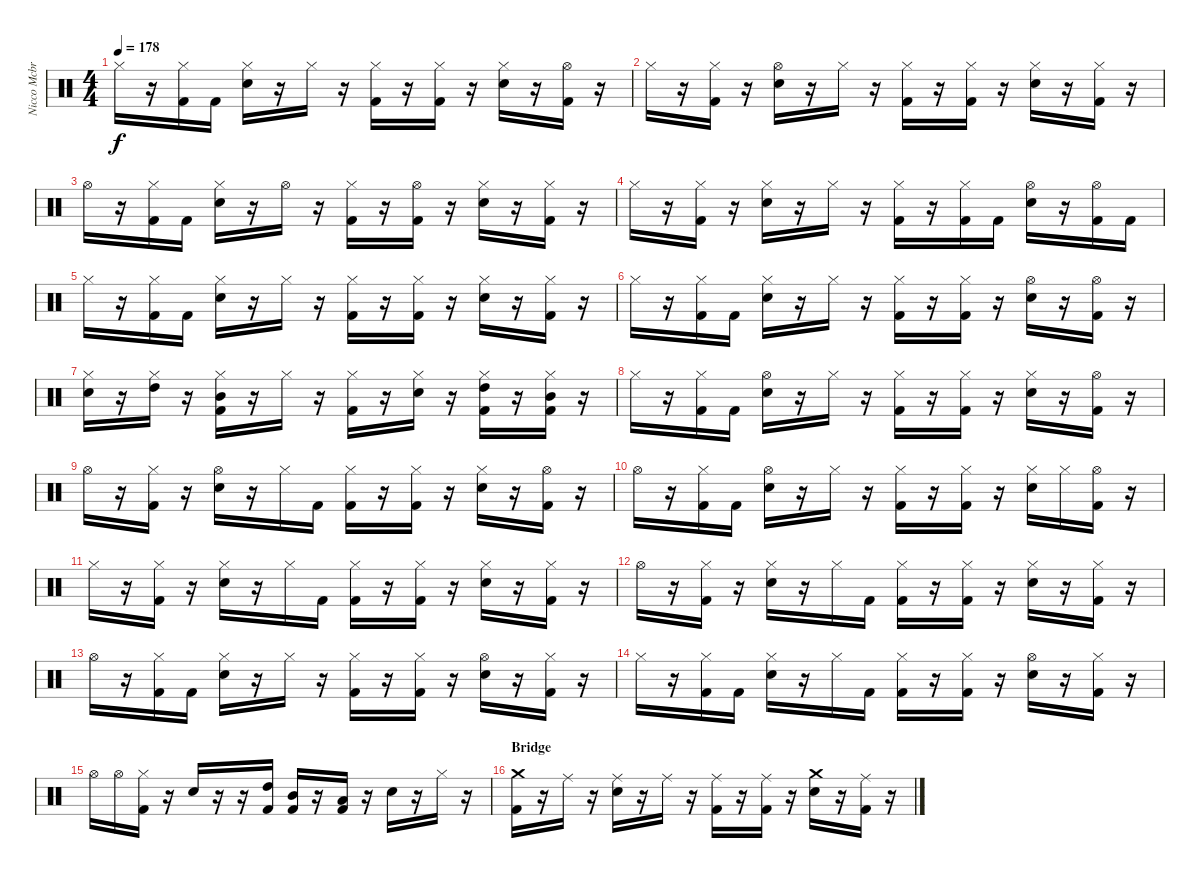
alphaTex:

\track ("Nicco Mcbrian - Drums" "Nicco Mcbr") {instrument percussion}
\staff {score}
\articulation defaults
\ts (4 4)
\tempo 178
\clef neutral
\ks c "Hi-Hat (closed)".16{dy f}
r.16 ("Hi-Hat (closed)" "Kick (hit) 2").16 "Kick (hit) 2".16 ("Hi-Hat (closed)" "Snare (hit) 2").16 r.16 "Hi-Hat (closed)".16 r.16 ("Hi-Hat (closed)" "Kick (hit) 2").16 r.16 ("Hi-Hat (closed)" "Kick (hit) 2").16 r.16 ("Hi-Hat (closed)" "Snare (hit) 2").16 r.16 ("Hi-Hat (open)" "Kick (hit) 2").16 r.16 |
"Hi-Hat (closed)".16 r.16 ("Hi-Hat (closed)" "Kick (hit) 2").16 r.16 ("Hi-Hat (open)" "Snare (hit) 2").16 r.16 "Hi-Hat (closed)".16 r.16 ("Hi-Hat (closed)" "Kick (hit) 2").16 r.16 ("Hi-Hat (closed)" "Kick (hit) 2").16 r.16 ("Hi-Hat (closed)" "Snare (hit) 2").16 r.16 ("Hi-Hat (closed)" "Kick (hit) 2").16 r.16 |
"Hi-Hat (open)".16 r.16 ("Hi-Hat (closed)" "Kick (hit) 2").16 "Kick (hit) 2".16 ("Hi-Hat (closed)" "Snare (hit) 2").16 r.16 "Hi-Hat (open)".16 r.16 ("Hi-Hat (closed)" "Kick (hit) 2").16 r.16 ("Hi-Hat (open)" "Kick (hit) 2").16 r.16 ("Hi-Hat (closed)" "Snare (hit) 2").16 r.16 ("Hi-Hat (closed)" "Kick (hit) 2").16 r.16 |
"Hi-Hat (closed)".16 r.16 ("Hi-Hat (closed)" "Kick (hit) 2").16 r.16 ("Hi-Hat (closed)" "Snare (hit) 2").16 r.16 "Hi-Hat (closed)".16 r.16 ("Hi-Hat (closed)" "Kick (hit) 2").16 r.16 ("Hi-Hat (closed)" "Kick (hit) 2").16 "Kick (hit) 2".16 ("Hi-Hat (open)" "Snare (hit) 2").16 r.16 ("Hi-Hat (open)" "Kick (hit) 2").16 "Kick (hit) 2".16 |
"Hi-Hat (closed)".16 r.16 ("Hi-Hat (closed)" "Kick (hit) 2").16 "Kick (hit) 2".16 ("Hi-Hat (closed)" "Snare (hit) 2").16 r.16 "Hi-Hat (closed)".16 r.16 ("Hi-Hat (closed)" "Kick (hit) 2").16 r.16 ("Hi-Hat (closed)" "Kick (hit) 2").16 r.16 ("Hi-Hat (closed)" "Snare (hit) 2").16 r.16 ("Hi-Hat (closed)" "Kick (hit) 2").16 r.16 |
"Hi-Hat (closed)".16 r.16 ("Hi-Hat (closed)" "Kick (hit) 2").16 "Kick (hit) 2".16 ("Hi-Hat (closed)" "Snare (hit) 2").16 r.16 "Hi-Hat (closed)".16 r.16 ("Hi-Hat (closed)" "Kick (hit) 2").16 r.16 ("Hi-Hat (closed)" "Kick (hit) 2").16 r.16 ("Hi-Hat (open)" "Snare (hit) 2").16 r.16 ("Hi-Hat (open)" "Kick (hit) 2").16 r.16 |
("Hi-Hat (closed)" "Snare (hit) 2").16 r.16 ("Hi-Hat (closed)" "High Tom (hit)").16 r.16 ("Hi-Hat (closed)" "Mid Tom (hit)" "Kick (hit) 2").16 r.16 "Hi-Hat (closed)".16 r.16 ("Hi-Hat (closed)" "Kick (hit) 2").16 r.16 ("Hi-Hat (closed)" "Snare (hit) 2").16 r.16 ("Hi-Hat (closed)" "High Tom (hit)" "Kick (hit) 2").16 r.16 ("Hi-Hat (closed)" "Mid Tom (hit)" "Kick (hit) 2").16 r.16 |
"Hi-Hat (closed)".16 r.16 ("Hi-Hat (closed)" "Kick (hit) 2").16 "Kick (hit) 2".16 ("Hi-Hat (open)" "Snare (hit) 2").16 r.16 "Hi-Hat (closed)".16 r.16 ("Hi-Hat (closed)" "Kick (hit) 2").16 r.16 ("Hi-Hat (closed)" "Kick (hit) 2").16 r.16 ("Hi-Hat (closed)" "Snare (hit) 2").16 r.16 ("Hi-Hat (open)" "Kick (hit) 2").16 r.16 |
"Hi-Hat (open)".16 r.16 ("Hi-Hat (closed)" "Kick (hit) 2").16 r.16 ("Hi-Hat (open)" "Snare (hit) 2").16 r.16 "Hi-Hat (closed)".16 "Kick (hit) 2".16 ("Hi-Hat (closed)" "Kick (hit) 2").16 r.16 ("Hi-Hat (closed)" "Kick (hit) 2").16 r.16 ("Hi-Hat (closed)" "Snare (hit) 2").16 r.16 ("Hi-Hat (open)" "Kick (hit) 2").16 r.16 |
"Hi-Hat (open)".16 r.16 ("Hi-Hat (closed)" "Kick (hit) 2").16 "Kick (hit) 2".16 ("Hi-Hat (open)" "Snare (hit) 2").16 r.16 "Hi-Hat (closed)".16 r.16 ("Hi-Hat (closed)" "Kick (hit) 2").16 r.16 ("Hi-Hat (closed)" "Kick (hit) 2").16 r.16 ("Hi-Hat (closed)" "Snare (hit) 2").16 "Hi-Hat (closed)".16 ("Hi-Hat (open)" "Kick (hit) 2").16 r.16 |
"Hi-Hat (closed)".16 r.16 ("Hi-Hat (closed)" "Kick (hit) 2").16 r.16 ("Hi-Hat (closed)" "Snare (hit) 2").16 r.16 "Hi-Hat (closed)".16 "Kick (hit) 2".16 ("Hi-Hat (closed)" "Kick (hit) 2").16 r.16 ("Hi-Hat (closed)" "Kick (hit) 2").16 r.16 ("Hi-Hat (closed)" "Snare (hit) 2").16 r.16 ("Hi-Hat (closed)" "Kick (hit) 2").16 r.16 |
"Hi-Hat (open)".16 r.16 ("Hi-Hat (closed)" "Kick (hit) 2").16 r.16 ("Hi-Hat (closed)" "Snare (hit) 2").16 r.16 "Hi-Hat (closed)".16 "Kick (hit) 2".16 ("Hi-Hat (closed)" "Kick (hit) 2").16 r.16 ("Hi-Hat (closed)" "Kick (hit) 2").16 r.16 ("Hi-Hat (closed)" "Snare (hit) 2").16 r.16 ("Hi-Hat (closed)" "Kick (hit) 2").16 r.16 |
"Hi-Hat (open)".16 r.16 ("Hi-Hat (closed)" "Kick (hit) 2").16 "Kick (hit) 2".16 ("Hi-Hat (closed)" "Snare (hit) 2").16 r.16 "Hi-Hat (closed)".16 r.16 ("Hi-Hat (closed)" "Kick (hit) 2").16 r.16 ("Hi-Hat (closed)" "Kick (hit) 2").16 r.16 ("Hi-Hat (open)" "Snare (hit) 2").16 r.16 ("Hi-Hat (closed)" "Kick (hit) 2").16 r.16 |
"Hi-Hat (closed)".16 r.16 ("Hi-Hat (closed)" "Kick (hit) 2").16 "Kick (hit) 2".16 ("Hi-Hat (closed)" "Snare (hit) 2").16 r.16 "Hi-Hat (closed)".16 "Kick (hit) 2".16 ("Hi-Hat (closed)" "Kick (hit) 2").16 r.16 ("Hi-Hat (closed)" "Kick (hit) 2").16 r.16 ("Hi-Hat (open)" "Snare (hit) 2").16 r.16 ("Hi-Hat (closed)" "Kick (hit) 2").16 r.16 |
"Hi-Hat (open)".16 "Hi-Hat (open)".16 ("Hi-Hat (closed)" "Kick (hit) 2").16 r.16 "Snare (hit) 2".16 r.16 r.16 ("High Tom (hit)" "Kick (hit) 2").16 ("Mid Tom (hit)" "Kick (hit) 2").16 r.16 ("Low Tom (hit)" "Kick (hit) 2").16 r.16 "Snare (hit) 2".16 r.16 "Hi-Hat (closed)".16 r.16 |
\section ("" "Bridge")
("Crash medium (hit)" "Kick (hit) 2").16 r.16 "Ride (middle)".16 r.16 ("Ride (middle)" "Snare (hit) 2").16 r.16 "Ride (middle)".16 r.16 ("Ride (middle)" "Kick (hit) 2").16 r.16 ("Ride (middle)" "Kick (hit) 2").16 r.16 ("Crash medium (hit)" "Snare (hit) 2").16 r.16 ("Ride (middle)" "Kick (hit) 2").16 r.16
